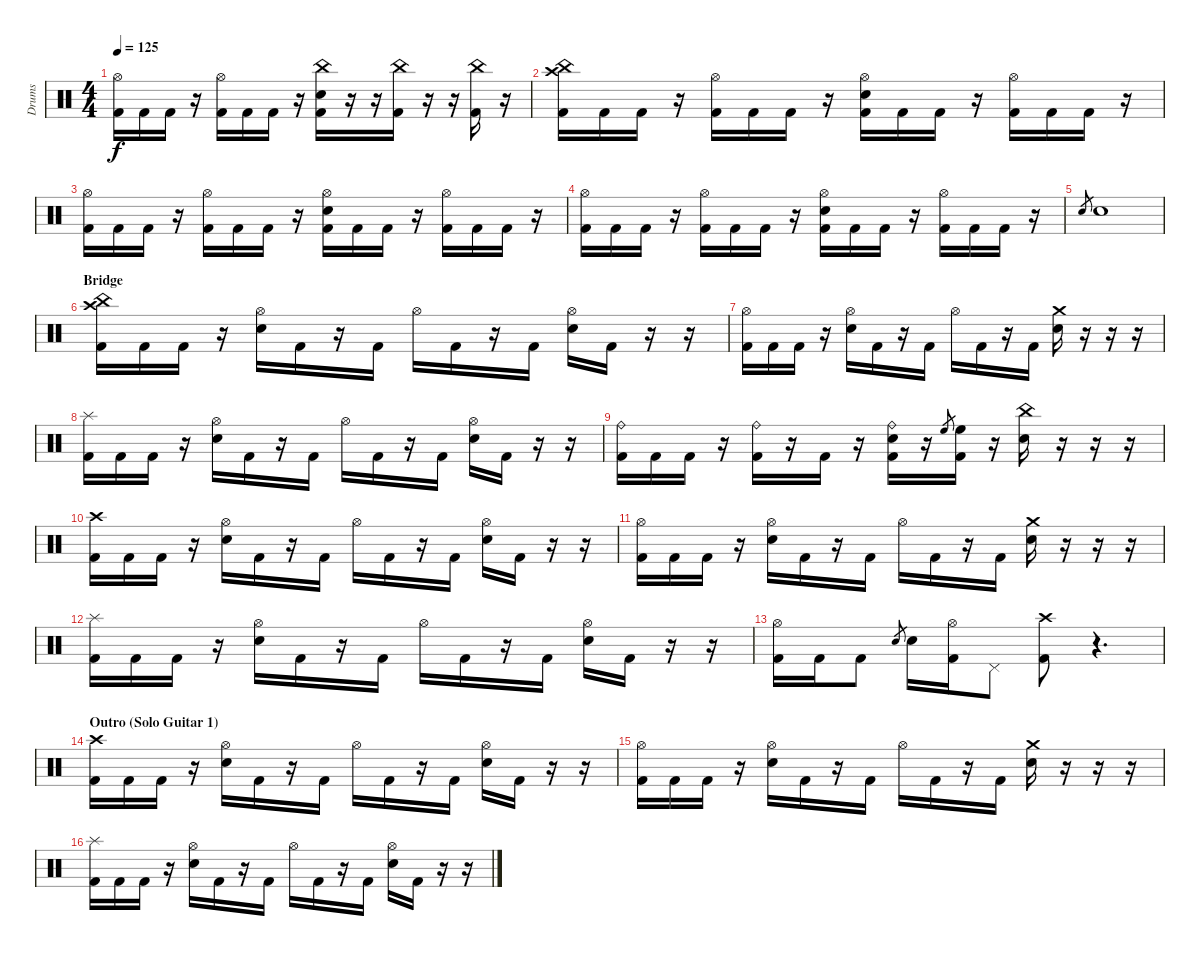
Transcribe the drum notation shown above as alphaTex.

\track ("Drums" "Drums") {instrument percussion}
\staff {score}
\articulation defaults
\ts (4 4)
\tempo 125
\clef neutral
\ks c
("Hi-Hat (open)" "Kick (hit) 2").16{dy f} "Kick (hit) 2".16 "Kick (hit) 2".16 r.16 ("Hi-Hat (open)" "Kick (hit) 2").16 "Kick (hit) 2".16 "Kick (hit) 2".16 r.16 ("China (hit)" "Electric Snare (hit)" "Kick (hit) 2").16 r.16 r.16 ("China (hit)" "Kick (hit) 2").16 r.16 r.16 ("China (hit)" "Kick (hit) 2").16 r.16 |
("China (hit)" "Crash high (hit)" "Kick (hit) 2").16 "Kick (hit) 2".16 "Kick (hit) 2".16 r.16 ("Hi-Hat (open)" "Kick (hit) 2").16 "Kick (hit) 2".16 "Kick (hit) 2".16 r.16 ("Hi-Hat (open)" "Electric Snare (hit)" "Kick (hit) 2").16 "Kick (hit) 2".16 "Kick (hit) 2".16 r.16 ("Hi-Hat (open)" "Kick (hit) 2").16 "Kick (hit) 2".16 "Kick (hit) 2".16 r.16 |
("Hi-Hat (open)" "Kick (hit) 2").16 "Kick (hit) 2".16 "Kick (hit) 2".16 r.16 ("Hi-Hat (open)" "Kick (hit) 2").16 "Kick (hit) 2".16 "Kick (hit) 2".16 r.16 ("Hi-Hat (open)" "Electric Snare (hit)" "Kick (hit) 2").16 "Kick (hit) 2".16 "Kick (hit) 2".16 r.16 ("Hi-Hat (open)" "Kick (hit) 2").16 "Kick (hit) 2".16 "Kick (hit) 2".16 r.16 |
("Hi-Hat (open)" "Kick (hit) 2").16 "Kick (hit) 2".16 "Kick (hit) 2".16 r.16 ("Hi-Hat (open)" "Kick (hit) 2").16 "Kick (hit) 2".16 "Kick (hit) 2".16 r.16 ("Hi-Hat (open)" "Electric Snare (hit)" "Kick (hit) 2").16 "Kick (hit) 2".16 "Kick (hit) 2".16 r.16 ("Hi-Hat (open)" "Kick (hit) 2").16 "Kick (hit) 2".16 "Kick (hit) 2".16 r.16 |
"Electric Snare (hit)".8{gr} "Electric Snare (hit)".1 |
\section ("" "Bridge")
("Crash high (hit)" "China (hit)" "Kick (hit) 2").16{volume 14} "Kick (hit) 2".16 "Kick (hit) 2".16 r.16 ("Hi-Hat (open)" "Electric Snare (hit)").16 "Kick (hit) 2".16 r.16 "Kick (hit) 2".16 "Hi-Hat (open)".16 "Kick (hit) 2".16 r.16 "Kick (hit) 2".16 ("Hi-Hat (open)" "Electric Snare (hit)").16 "Kick (hit) 2".16 r.16 r.16 |
("Hi-Hat (open)" "Kick (hit) 2").16 "Kick (hit) 2".16 "Kick (hit) 2".16 r.16 ("Hi-Hat (open)" "Electric Snare (hit)").16 "Kick (hit) 2".16 r.16 "Kick (hit) 2".16 "Hi-Hat (open)".16 "Kick (hit) 2".16 r.16 "Kick (hit) 2".16 ("Crash medium (hit)" "Electric Snare (hit)").16 r.16 r.16 r.16 |
("Splash (hit)" "Kick (hit) 2").16 "Kick (hit) 2".16 "Kick (hit) 2".16 r.16 ("Hi-Hat (open)" "Electric Snare (hit)").16 "Kick (hit) 2".16 r.16 "Kick (hit) 2".16 "Hi-Hat (open)".16 "Kick (hit) 2".16 r.16 "Kick (hit) 2".16 ("Hi-Hat (open)" "Electric Snare (hit)").16 "Kick (hit) 2".16 r.16 r.16 |
("Ride (bell)" "Kick (hit) 2").16 "Kick (hit) 2".16 "Kick (hit) 2".16 r.16 ("Ride (bell)" "Kick (hit) 2").16 r.16 "Kick (hit) 2".16 r.16 ("Ride (bell)" "Electric Snare (hit)" "Kick (hit) 2").16 r.16 "High Floor Tom (hit)".8{gr} ("High Floor Tom (hit)" "Kick (hit) 2").16 r.16 ("China (hit)" "Electric Snare (hit)").16 r.16 r.16 r.16 |
("Crash high (hit)" "Kick (hit) 2").16 "Kick (hit) 2".16 "Kick (hit) 2".16 r.16 ("Hi-Hat (open)" "Electric Snare (hit)").16 "Kick (hit) 2".16 r.16 "Kick (hit) 2".16 "Hi-Hat (open)".16 "Kick (hit) 2".16 r.16 "Kick (hit) 2".16 ("Hi-Hat (open)" "Electric Snare (hit)").16 "Kick (hit) 2".16 r.16 r.16 |
("Hi-Hat (open)" "Kick (hit) 2").16 "Kick (hit) 2".16 "Kick (hit) 2".16 r.16 ("Hi-Hat (open)" "Electric Snare (hit)").16 "Kick (hit) 2".16 r.16 "Kick (hit) 2".16 "Hi-Hat (open)".16 "Kick (hit) 2".16 r.16 "Kick (hit) 2".16 ("Crash medium (hit)" "Electric Snare (hit)").16 r.16 r.16 r.16 |
("Splash (hit)" "Kick (hit) 2").16 "Kick (hit) 2".16 "Kick (hit) 2".16 r.16 ("Hi-Hat (open)" "Electric Snare (hit)").16 "Kick (hit) 2".16 r.16 "Kick (hit) 2".16 "Hi-Hat (open)".16 "Kick (hit) 2".16 r.16 "Kick (hit) 2".16 ("Hi-Hat (open)" "Electric Snare (hit)").16 "Kick (hit) 2".16 r.16 r.16 |
("Hi-Hat (open)" "Kick (hit) 2").16 "Kick (hit) 2".16 "Kick (hit) 2".8 "Electric Snare (hit)".8{gr} "Electric Snare (hit)".16 ("Hi-Hat (open)" "Kick (hit) 2").16 "Pedal Hi-Hat (hit)".8 ("Crash high (hit)" "Kick (hit) 2").8 r.4{d volume 0} |
\section ("" "Outro (Solo Guitar 1)")
("Crash high (hit)" "Kick (hit) 2").16{volume 14} "Kick (hit) 2".16 "Kick (hit) 2".16 r.16 ("Hi-Hat (open)" "Electric Snare (hit)").16 "Kick (hit) 2".16 r.16 "Kick (hit) 2".16 "Hi-Hat (open)".16 "Kick (hit) 2".16 r.16 "Kick (hit) 2".16 ("Hi-Hat (open)" "Electric Snare (hit)").16 "Kick (hit) 2".16 r.16 r.16 |
("Hi-Hat (open)" "Kick (hit) 2").16 "Kick (hit) 2".16 "Kick (hit) 2".16 r.16 ("Hi-Hat (open)" "Electric Snare (hit)").16 "Kick (hit) 2".16 r.16 "Kick (hit) 2".16 "Hi-Hat (open)".16 "Kick (hit) 2".16 r.16 "Kick (hit) 2".16 ("Crash medium (hit)" "Electric Snare (hit)").16 r.16 r.16 r.16 |
("Splash (hit)" "Kick (hit) 2").16 "Kick (hit) 2".16 "Kick (hit) 2".16 r.16 ("Hi-Hat (open)" "Electric Snare (hit)").16 "Kick (hit) 2".16 r.16 "Kick (hit) 2".16 "Hi-Hat (open)".16 "Kick (hit) 2".16 r.16 "Kick (hit) 2".16 ("Hi-Hat (open)" "Electric Snare (hit)").16 "Kick (hit) 2".16 r.16 r.16
